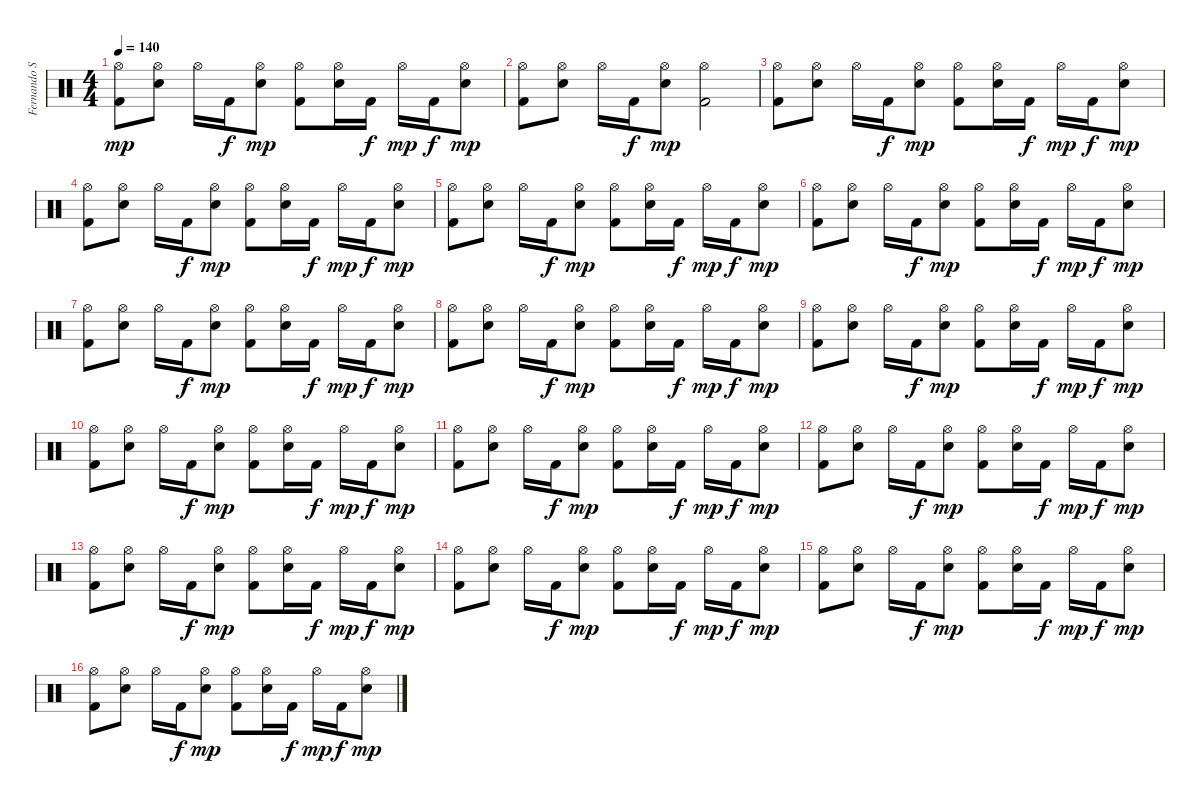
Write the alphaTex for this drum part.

\track ("Fernando Scarcella" "Fernando S") {instrument percussion}
\staff {score}
\articulation defaults
\ts (4 4)
\tempo 140
\clef neutral
\ks c
("Hi-Hat (open)" "Kick (hit) 2").8{dy mp} ("Hi-Hat (open)" "Snare (hit) 2").8 "Hi-Hat (open)".16 "Kick (hit) 2".16{dy f} ("Hi-Hat (open)" "Snare (hit) 2").8{dy mp} ("Hi-Hat (open)" "Kick (hit) 2").8 ("Hi-Hat (open)" "Snare (hit) 2").16 "Kick (hit) 2".16{dy f} "Hi-Hat (open)".16{dy mp} "Kick (hit) 2".16{dy f} ("Hi-Hat (open)" "Snare (hit) 2").8{dy mp} |
("Hi-Hat (open)" "Kick (hit) 2").8 ("Hi-Hat (open)" "Snare (hit) 2").8 "Hi-Hat (open)".16 "Kick (hit) 2".16{dy f} ("Hi-Hat (open)" "Snare (hit) 2").8{dy mp} ("Hi-Hat (open)" "Kick (hit) 2").2 |
("Hi-Hat (open)" "Kick (hit) 2").8 ("Hi-Hat (open)" "Snare (hit) 2").8 "Hi-Hat (open)".16 "Kick (hit) 2".16{dy f} ("Hi-Hat (open)" "Snare (hit) 2").8{dy mp} ("Hi-Hat (open)" "Kick (hit) 2").8 ("Hi-Hat (open)" "Snare (hit) 2").16 "Kick (hit) 2".16{dy f} "Hi-Hat (open)".16{dy mp} "Kick (hit) 2".16{dy f} ("Hi-Hat (open)" "Snare (hit) 2").8{dy mp} |
("Hi-Hat (open)" "Kick (hit) 2").8 ("Hi-Hat (open)" "Snare (hit) 2").8 "Hi-Hat (open)".16 "Kick (hit) 2".16{dy f} ("Hi-Hat (open)" "Snare (hit) 2").8{dy mp} ("Hi-Hat (open)" "Kick (hit) 2").8 ("Hi-Hat (open)" "Snare (hit) 2").16 "Kick (hit) 2".16{dy f} "Hi-Hat (open)".16{dy mp} "Kick (hit) 2".16{dy f} ("Hi-Hat (open)" "Snare (hit) 2").8{dy mp} |
("Hi-Hat (open)" "Kick (hit) 2").8 ("Hi-Hat (open)" "Snare (hit) 2").8 "Hi-Hat (open)".16 "Kick (hit) 2".16{dy f} ("Hi-Hat (open)" "Snare (hit) 2").8{dy mp} ("Hi-Hat (open)" "Kick (hit) 2").8 ("Hi-Hat (open)" "Snare (hit) 2").16 "Kick (hit) 2".16{dy f} "Hi-Hat (open)".16{dy mp} "Kick (hit) 2".16{dy f} ("Hi-Hat (open)" "Snare (hit) 2").8{dy mp} |
("Hi-Hat (open)" "Kick (hit) 2").8 ("Hi-Hat (open)" "Snare (hit) 2").8 "Hi-Hat (open)".16 "Kick (hit) 2".16{dy f} ("Hi-Hat (open)" "Snare (hit) 2").8{dy mp} ("Hi-Hat (open)" "Kick (hit) 2").8 ("Hi-Hat (open)" "Snare (hit) 2").16 "Kick (hit) 2".16{dy f} "Hi-Hat (open)".16{dy mp} "Kick (hit) 2".16{dy f} ("Hi-Hat (open)" "Snare (hit) 2").8{dy mp} |
("Hi-Hat (open)" "Kick (hit) 2").8 ("Hi-Hat (open)" "Snare (hit) 2").8 "Hi-Hat (open)".16 "Kick (hit) 2".16{dy f} ("Hi-Hat (open)" "Snare (hit) 2").8{dy mp} ("Hi-Hat (open)" "Kick (hit) 2").8 ("Hi-Hat (open)" "Snare (hit) 2").16 "Kick (hit) 2".16{dy f} "Hi-Hat (open)".16{dy mp} "Kick (hit) 2".16{dy f} ("Hi-Hat (open)" "Snare (hit) 2").8{dy mp} |
("Hi-Hat (open)" "Kick (hit) 2").8 ("Hi-Hat (open)" "Snare (hit) 2").8 "Hi-Hat (open)".16 "Kick (hit) 2".16{dy f} ("Hi-Hat (open)" "Snare (hit) 2").8{dy mp} ("Hi-Hat (open)" "Kick (hit) 2").8 ("Hi-Hat (open)" "Snare (hit) 2").16 "Kick (hit) 2".16{dy f} "Hi-Hat (open)".16{dy mp} "Kick (hit) 2".16{dy f} ("Hi-Hat (open)" "Snare (hit) 2").8{dy mp} |
("Hi-Hat (open)" "Kick (hit) 2").8 ("Hi-Hat (open)" "Snare (hit) 2").8 "Hi-Hat (open)".16 "Kick (hit) 2".16{dy f} ("Hi-Hat (open)" "Snare (hit) 2").8{dy mp} ("Hi-Hat (open)" "Kick (hit) 2").8 ("Hi-Hat (open)" "Snare (hit) 2").16 "Kick (hit) 2".16{dy f} "Hi-Hat (open)".16{dy mp} "Kick (hit) 2".16{dy f} ("Hi-Hat (open)" "Snare (hit) 2").8{dy mp} |
("Hi-Hat (open)" "Kick (hit) 2").8 ("Hi-Hat (open)" "Snare (hit) 2").8 "Hi-Hat (open)".16 "Kick (hit) 2".16{dy f} ("Hi-Hat (open)" "Snare (hit) 2").8{dy mp} ("Hi-Hat (open)" "Kick (hit) 2").8 ("Hi-Hat (open)" "Snare (hit) 2").16 "Kick (hit) 2".16{dy f} "Hi-Hat (open)".16{dy mp} "Kick (hit) 2".16{dy f} ("Hi-Hat (open)" "Snare (hit) 2").8{dy mp} |
("Hi-Hat (open)" "Kick (hit) 2").8 ("Hi-Hat (open)" "Snare (hit) 2").8 "Hi-Hat (open)".16 "Kick (hit) 2".16{dy f} ("Hi-Hat (open)" "Snare (hit) 2").8{dy mp} ("Hi-Hat (open)" "Kick (hit) 2").8 ("Hi-Hat (open)" "Snare (hit) 2").16 "Kick (hit) 2".16{dy f} "Hi-Hat (open)".16{dy mp} "Kick (hit) 2".16{dy f} ("Hi-Hat (open)" "Snare (hit) 2").8{dy mp} |
("Hi-Hat (open)" "Kick (hit) 2").8 ("Hi-Hat (open)" "Snare (hit) 2").8 "Hi-Hat (open)".16 "Kick (hit) 2".16{dy f} ("Hi-Hat (open)" "Snare (hit) 2").8{dy mp} ("Hi-Hat (open)" "Kick (hit) 2").8 ("Hi-Hat (open)" "Snare (hit) 2").16 "Kick (hit) 2".16{dy f} "Hi-Hat (open)".16{dy mp} "Kick (hit) 2".16{dy f} ("Hi-Hat (open)" "Snare (hit) 2").8{dy mp} |
("Hi-Hat (open)" "Kick (hit) 2").8 ("Hi-Hat (open)" "Snare (hit) 2").8 "Hi-Hat (open)".16 "Kick (hit) 2".16{dy f} ("Hi-Hat (open)" "Snare (hit) 2").8{dy mp} ("Hi-Hat (open)" "Kick (hit) 2").8 ("Hi-Hat (open)" "Snare (hit) 2").16 "Kick (hit) 2".16{dy f} "Hi-Hat (open)".16{dy mp} "Kick (hit) 2".16{dy f} ("Hi-Hat (open)" "Snare (hit) 2").8{dy mp} |
("Hi-Hat (open)" "Kick (hit) 2").8 ("Hi-Hat (open)" "Snare (hit) 2").8 "Hi-Hat (open)".16 "Kick (hit) 2".16{dy f} ("Hi-Hat (open)" "Snare (hit) 2").8{dy mp} ("Hi-Hat (open)" "Kick (hit) 2").8 ("Hi-Hat (open)" "Snare (hit) 2").16 "Kick (hit) 2".16{dy f} "Hi-Hat (open)".16{dy mp} "Kick (hit) 2".16{dy f} ("Hi-Hat (open)" "Snare (hit) 2").8{dy mp} |
("Hi-Hat (open)" "Kick (hit) 2").8 ("Hi-Hat (open)" "Snare (hit) 2").8 "Hi-Hat (open)".16 "Kick (hit) 2".16{dy f} ("Hi-Hat (open)" "Snare (hit) 2").8{dy mp} ("Hi-Hat (open)" "Kick (hit) 2").8 ("Hi-Hat (open)" "Snare (hit) 2").16 "Kick (hit) 2".16{dy f} "Hi-Hat (open)".16{dy mp} "Kick (hit) 2".16{dy f} ("Hi-Hat (open)" "Snare (hit) 2").8{dy mp} |
("Hi-Hat (open)" "Kick (hit) 2").8 ("Hi-Hat (open)" "Snare (hit) 2").8 "Hi-Hat (open)".16 "Kick (hit) 2".16{dy f} ("Hi-Hat (open)" "Snare (hit) 2").8{dy mp} ("Hi-Hat (open)" "Kick (hit) 2").8 ("Hi-Hat (open)" "Snare (hit) 2").16 "Kick (hit) 2".16{dy f} "Hi-Hat (open)".16{dy mp} "Kick (hit) 2".16{dy f} ("Hi-Hat (open)" "Snare (hit) 2").8{dy mp}
